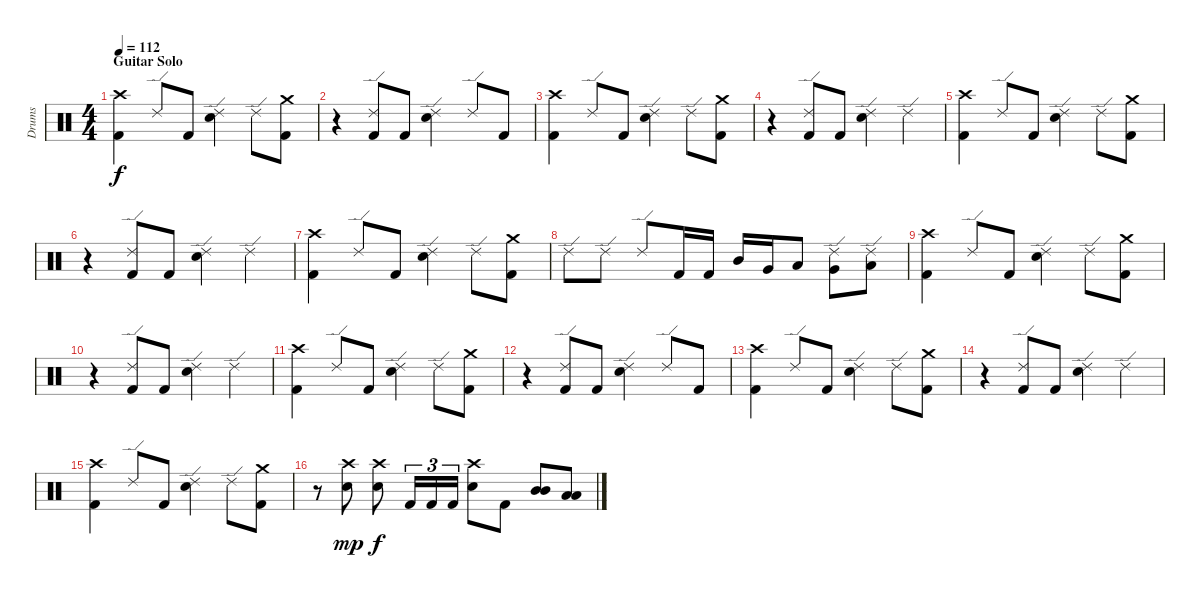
\track ("Drums" "Drums") {instrument percussion}
\staff {score}
\articulation defaults
\ts (4 4)
\section ("" "Guitar Solo")
\tempo 112
\clef neutral
\ks c
("Crash high (hit)" "Kick (hit) 2").4{dy f} "Ride (edge) 2".8 "Kick (hit) 2".8 ("Ride (edge) 2" "Electric Snare (hit)").4 "Ride (edge) 2".8 ("Crash medium (hit)" "Kick (hit) 2").8 |
r.4 ("Ride (edge) 2" "Kick (hit) 2").8 "Kick (hit) 2".8 ("Ride (edge) 2" "Electric Snare (hit)").4 "Ride (edge) 2".8 "Kick (hit) 2".8 |
("Crash high (hit)" "Kick (hit) 2").4 "Ride (edge) 2".8 "Kick (hit) 2".8 ("Ride (edge) 2" "Electric Snare (hit)").4 "Ride (edge) 2".8 ("Crash medium (hit)" "Kick (hit) 2").8 |
r.4 ("Ride (edge) 2" "Kick (hit) 2").8 "Kick (hit) 2".8 ("Ride (edge) 2" "Electric Snare (hit)").4 "Ride (edge) 2".4 |
("Crash high (hit)" "Kick (hit) 2").4 "Ride (edge) 2".8 "Kick (hit) 2".8 ("Ride (edge) 2" "Electric Snare (hit)").4 "Ride (edge) 2".8 ("Crash medium (hit)" "Kick (hit) 2").8 |
r.4 ("Ride (edge) 2" "Kick (hit) 2").8 "Kick (hit) 2".8 ("Ride (edge) 2" "Electric Snare (hit)").4 "Ride (edge) 2".4 |
("Crash high (hit)" "Kick (hit) 2").4 "Ride (edge) 2".8 "Kick (hit) 2".8 ("Ride (edge) 2" "Electric Snare (hit)").4 "Ride (edge) 2".8 ("Crash medium (hit)" "Kick (hit) 2").8 |
"Ride (edge) 2".8 "Ride (edge) 2".8 "Ride (edge) 2".8 "Kick (hit) 2".16 "Kick (hit) 2".16 "Mid Tom (hit)".16 "Very Low Tom (hit)".16 "Low Tom (hit)".8 ("Ride (edge) 2" "Very Low Tom (hit)").8 ("Ride (edge) 2" "Low Floor Tom (hit)").8 |
("Crash high (hit)" "Kick (hit) 2").4 "Ride (edge) 2".8 "Kick (hit) 2".8 ("Ride (edge) 2" "Electric Snare (hit)").4 "Ride (edge) 2".8 ("Crash medium (hit)" "Kick (hit) 2").8 |
r.4 ("Ride (edge) 2" "Kick (hit) 2").8 "Kick (hit) 2".8 ("Ride (edge) 2" "Electric Snare (hit)").4 "Ride (edge) 2".4 |
("Crash high (hit)" "Kick (hit) 2").4 "Ride (edge) 2".8 "Kick (hit) 2".8 ("Ride (edge) 2" "Electric Snare (hit)").4 "Ride (edge) 2".8 ("Crash medium (hit)" "Kick (hit) 2").8 |
r.4 ("Ride (edge) 2" "Kick (hit) 2").8 "Kick (hit) 2".8 ("Ride (edge) 2" "Electric Snare (hit)").4 "Ride (edge) 2".8 "Kick (hit) 2".8 |
("Crash high (hit)" "Kick (hit) 2").4 "Ride (edge) 2".8 "Kick (hit) 2".8 ("Ride (edge) 2" "Electric Snare (hit)").4 "Ride (edge) 2".8 ("Crash medium (hit)" "Kick (hit) 2").8 |
r.4 ("Ride (edge) 2" "Kick (hit) 2").8 "Kick (hit) 2".8 ("Ride (edge) 2" "Electric Snare (hit)").4 "Ride (edge) 2".4 |
("Crash high (hit)" "Kick (hit) 2").4 "Ride (edge) 2".8 "Kick (hit) 2".8 ("Ride (edge) 2" "Electric Snare (hit)").4 "Ride (edge) 2".8 ("Crash medium (hit)" "Kick (hit) 2").8 |
r.8 ("Crash high (hit)" "Electric Snare (hit)").8{dy mp} ("Crash high (hit)" "Electric Snare (hit)").8{dy f} "Kick (hit) 2".16{tu (3 2)} "Kick (hit) 2".16{tu (3 2)} "Kick (hit) 2".16{tu (3 2)} ("Crash high (hit)" "Electric Snare (hit)").8 "Kick (hit) 2".8 ("Mid Tom (hit)" "Mid Tom (hit)").8{bu 30} ("Low Tom (hit)" "Low Tom (hit)").8{bu 30}
